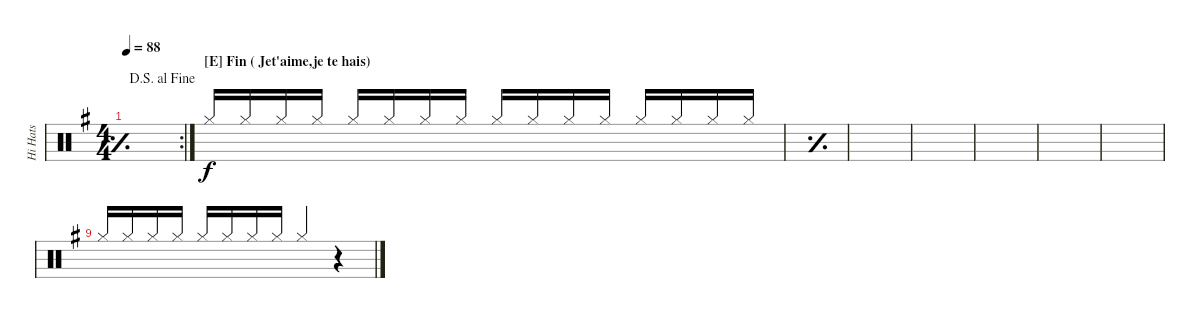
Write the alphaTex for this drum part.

\defaultSystemsLayout 4
\bracketExtendMode groupsimilarinstruments
\firstSystemTrackNameMode fullname
\otherSystemsTrackNameMode fullname
\defaultBarNumberDisplay FirstOfSystem
\track ("Hi Hats" "drm.") {defaultSystemsLayout 6 instrument percussion}
\staff {score}
\articulation defaults
\rc 2
\ts (4 4)
\jump dalsegnoalfine
\tempo 88
\clef neutral
\simile simple
\ks g
|
\section ("E" "Fin ( Jet'aime,je te hais)")
\simile none "Hi-Hat (closed)"{acc forcenatural}.16{beam Up} "Hi-Hat (closed)"{acc forcenatural}.16{beam Up} "Hi-Hat (closed)"{acc forcenatural}.16{beam Up} "Hi-Hat (closed)"{acc forcenatural}.16{beam Up} "Hi-Hat (closed)"{acc forcenatural}.16{beam Up} "Hi-Hat (closed)"{acc forcenatural}.16{beam Up} "Hi-Hat (closed)"{acc forcenatural}.16{beam Up} "Hi-Hat (closed)"{acc forcenatural}.16{beam Up} "Hi-Hat (closed)"{acc forcenatural}.16{beam Up} "Hi-Hat (closed)"{acc forcenatural}.16{beam Up} "Hi-Hat (closed)"{acc forcenatural}.16{beam Up} "Hi-Hat (closed)"{acc forcenatural}.16{beam Up} "Hi-Hat (closed)"{acc forcenatural}.16{beam Up} "Hi-Hat (closed)"{acc forcenatural}.16{beam Up} "Hi-Hat (closed)"{acc forcenatural}.16{beam Up} "Hi-Hat (closed)"{acc forcenatural}.16{beam Up}
|
\simile simple
|
|
|
|
|
|
\simile none "Hi-Hat (closed)"{acc forcenatural}.16{beam Up} "Hi-Hat (closed)"{acc forcenatural}.16{beam Up} "Hi-Hat (closed)"{acc forcenatural}.16{beam Up} "Hi-Hat (closed)"{acc forcenatural}.16{beam Up} "Hi-Hat (closed)"{acc forcenatural}.16{beam Up} "Hi-Hat (closed)"{acc forcenatural}.16{beam Up} "Hi-Hat (closed)"{acc forcenatural}.16{beam Up} "Hi-Hat (closed)"{acc forcenatural}.16{beam Up} "Hi-Hat (closed)"{acc forcenatural}.4{beam Up}
r.4{beam Up}
